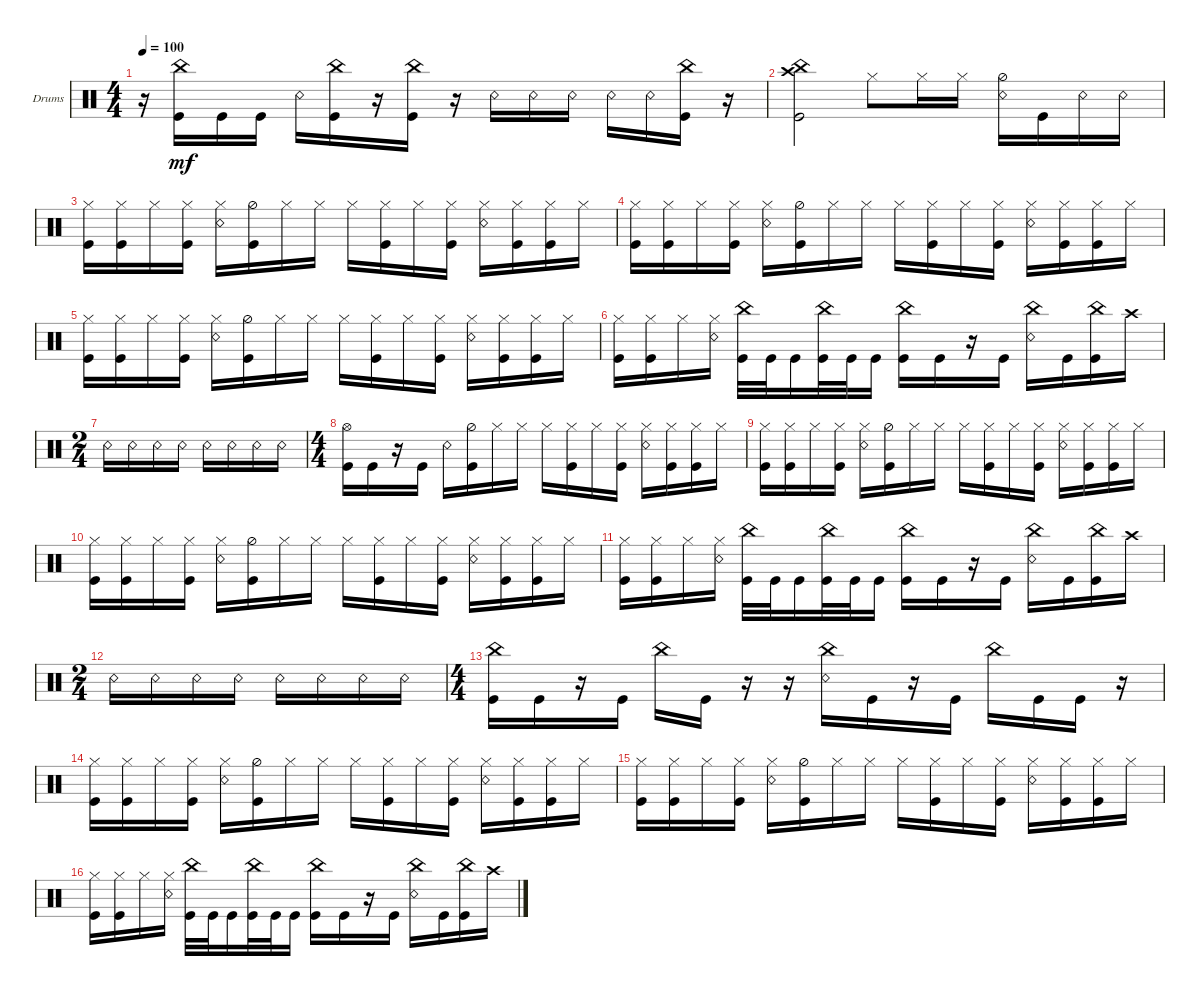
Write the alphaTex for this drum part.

\defaultSystemsLayout 4
\bracketExtendMode groupsimilarinstruments
\firstSystemTrackNameOrientation horizontal
\otherSystemsTrackNameOrientation horizontal
\track ("Drumkit" "Drums") {instrument percussion}
\staff {score}
\articulation defaults
\ts (4 4)
\tempo 100
\clef neutral
\ks c
r.16{dy mf} ("China (hit)" "Kick (hit)").16 "Kick (hit)".16 "Kick (hit)".16 "Snare (rim shot)".16 ("Kick (hit)" "China (hit)").16 r.16 ("China (hit)" "Kick (hit)").16 r.16 "Snare (rim shot)".16 "Snare (rim shot)".16 "Snare (rim shot)".16 "Snare (rim shot)".16 "Snare (rim shot)".16 ("China (hit)" "Kick (hit)").16 r.16 |
("Kick (hit)" "China (hit)" "Crash high (hit)").2 "Hi-Hat (closed)".8 "Hi-Hat (closed)".16 "Hi-Hat (closed)".16 ("Hi-Hat (half)" "Snare (rim shot)").16 "Kick (hit)".16 "Snare (rim shot)".16 "Snare (rim shot)".16 |
("Kick (hit)" "Hi-Hat (closed)").16 ("Kick (hit)" "Hi-Hat (closed)").16 "Hi-Hat (closed)".16 ("Hi-Hat (closed)" "Kick (hit)").16 ("Hi-Hat (closed)" "Snare (rim shot)").16 ("Hi-Hat (half)" "Kick (hit)").16 "Hi-Hat (closed)".16 "Hi-Hat (closed)".16 "Hi-Hat (closed)".16 ("Hi-Hat (closed)" "Kick (hit)").16 "Hi-Hat (closed)".16 ("Hi-Hat (closed)" "Kick (hit)").16 ("Hi-Hat (closed)" "Snare (rim shot)").16 ("Hi-Hat (closed)" "Kick (hit)").16 ("Hi-Hat (closed)" "Kick (hit)").16 "Hi-Hat (closed)".16 |
("Kick (hit)" "Hi-Hat (closed)").16 ("Kick (hit)" "Hi-Hat (closed)").16 "Hi-Hat (closed)".16 ("Hi-Hat (closed)" "Kick (hit)").16 ("Hi-Hat (closed)" "Snare (rim shot)").16 ("Hi-Hat (half)" "Kick (hit)").16 "Hi-Hat (closed)".16 "Hi-Hat (closed)".16 "Hi-Hat (closed)".16 ("Hi-Hat (closed)" "Kick (hit)").16 "Hi-Hat (closed)".16 ("Hi-Hat (closed)" "Kick (hit)").16 ("Hi-Hat (closed)" "Snare (rim shot)").16 ("Hi-Hat (closed)" "Kick (hit)").16 ("Hi-Hat (closed)" "Kick (hit)").16 "Hi-Hat (closed)".16 |
("Kick (hit)" "Hi-Hat (closed)").16 ("Kick (hit)" "Hi-Hat (closed)").16 "Hi-Hat (closed)".16 ("Hi-Hat (closed)" "Kick (hit)").16 ("Hi-Hat (closed)" "Snare (rim shot)").16 ("Hi-Hat (half)" "Kick (hit)").16 "Hi-Hat (closed)".16 "Hi-Hat (closed)".16 "Hi-Hat (closed)".16 ("Hi-Hat (closed)" "Kick (hit)").16 "Hi-Hat (closed)".16 ("Hi-Hat (closed)" "Kick (hit)").16 ("Hi-Hat (closed)" "Snare (rim shot)").16 ("Hi-Hat (closed)" "Kick (hit)").16 ("Hi-Hat (closed)" "Kick (hit)").16 "Hi-Hat (closed)".16 |
("Kick (hit)" "Hi-Hat (closed)").16 ("Kick (hit)" "Hi-Hat (closed)").16 "Hi-Hat (closed)".16 ("Hi-Hat (closed)" "Snare (rim shot)").16 ("Kick (hit)" "China (hit)").32 "Kick (hit)".32 "Kick (hit)".16 ("Kick (hit)" "China (hit)").32 "Kick (hit)".32 "Kick (hit)".16 ("China (hit)" "Kick (hit)").16 "Kick (hit)".16 r.16 "Kick (hit)".16 ("Snare (rim shot)" "China (hit)").16 "Kick (hit)".16 ("China (hit)" "Kick (hit)").16 "Crash high (hit)".16 |
\ts (2 4)
"Snare (rim shot)".16 "Snare (rim shot)".16 "Snare (rim shot)".16 "Snare (rim shot)".16 "Snare (rim shot)".16 "Snare (rim shot)".16 "Snare (rim shot)".16 "Snare (rim shot)".16 |
\ts (4 4)
("Kick (hit)" "Hi-Hat (open)").16 "Kick (hit)".16 r.16 "Kick (hit)".16 "Snare (rim shot)".16 ("Hi-Hat (half)" "Kick (hit)").16 "Hi-Hat (closed)".16 "Hi-Hat (closed)".16 "Hi-Hat (closed)".16 ("Hi-Hat (closed)" "Kick (hit)").16 "Hi-Hat (closed)".16 ("Hi-Hat (closed)" "Kick (hit)").16 ("Hi-Hat (closed)" "Snare (rim shot)").16 ("Hi-Hat (closed)" "Kick (hit)").16 ("Hi-Hat (closed)" "Kick (hit)").16 "Hi-Hat (closed)".16 |
("Kick (hit)" "Hi-Hat (closed)").16 ("Kick (hit)" "Hi-Hat (closed)").16 "Hi-Hat (closed)".16 ("Hi-Hat (closed)" "Kick (hit)").16 ("Hi-Hat (closed)" "Snare (rim shot)").16 ("Hi-Hat (half)" "Kick (hit)").16 "Hi-Hat (closed)".16 "Hi-Hat (closed)".16 "Hi-Hat (closed)".16 ("Hi-Hat (closed)" "Kick (hit)").16 "Hi-Hat (closed)".16 ("Hi-Hat (closed)" "Kick (hit)").16 ("Hi-Hat (closed)" "Snare (rim shot)").16 ("Hi-Hat (closed)" "Kick (hit)").16 ("Hi-Hat (closed)" "Kick (hit)").16 "Hi-Hat (closed)".16 |
("Kick (hit)" "Hi-Hat (closed)").16 ("Kick (hit)" "Hi-Hat (closed)").16 "Hi-Hat (closed)".16 ("Hi-Hat (closed)" "Kick (hit)").16 ("Hi-Hat (closed)" "Snare (rim shot)").16 ("Hi-Hat (half)" "Kick (hit)").16 "Hi-Hat (closed)".16 "Hi-Hat (closed)".16 "Hi-Hat (closed)".16 ("Hi-Hat (closed)" "Kick (hit)").16 "Hi-Hat (closed)".16 ("Hi-Hat (closed)" "Kick (hit)").16 ("Hi-Hat (closed)" "Snare (rim shot)").16 ("Hi-Hat (closed)" "Kick (hit)").16 ("Hi-Hat (closed)" "Kick (hit)").16 "Hi-Hat (closed)".16 |
("Kick (hit)" "Hi-Hat (closed)").16 ("Kick (hit)" "Hi-Hat (closed)").16 "Hi-Hat (closed)".16 ("Hi-Hat (closed)" "Snare (rim shot)").16 ("Kick (hit)" "China (hit)").32 "Kick (hit)".32 "Kick (hit)".16 ("Kick (hit)" "China (hit)").32 "Kick (hit)".32 "Kick (hit)".16 ("China (hit)" "Kick (hit)").16 "Kick (hit)".16 r.16 "Kick (hit)".16 ("Snare (rim shot)" "China (hit)").16 "Kick (hit)".16 ("China (hit)" "Kick (hit)").16 "Crash high (hit)".16 |
\ts (2 4)
"Snare (rim shot)".16 "Snare (rim shot)".16 "Snare (rim shot)".16 "Snare (rim shot)".16 "Snare (rim shot)".16 "Snare (rim shot)".16 "Snare (rim shot)".16 "Snare (rim shot)".16 |
\ts (4 4)
("Kick (hit)" "China (hit)").16 "Kick (hit)".16 r.16 "Kick (hit)".16 "China (hit)".16 "Kick (hit)".16 r.16 r.16 ("Snare (rim shot)" "China (hit)").16 "Kick (hit)".16 r.16 "Kick (hit)".16 "China (hit)".16 "Kick (hit)".16 "Kick (hit)".16 r.16 |
("Kick (hit)" "Hi-Hat (closed)").16 ("Kick (hit)" "Hi-Hat (closed)").16 "Hi-Hat (closed)".16 ("Hi-Hat (closed)" "Kick (hit)").16 ("Hi-Hat (closed)" "Snare (rim shot)").16 ("Hi-Hat (half)" "Kick (hit)").16 "Hi-Hat (closed)".16 "Hi-Hat (closed)".16 "Hi-Hat (closed)".16 ("Hi-Hat (closed)" "Kick (hit)").16 "Hi-Hat (closed)".16 ("Hi-Hat (closed)" "Kick (hit)").16 ("Hi-Hat (closed)" "Snare (rim shot)").16 ("Hi-Hat (closed)" "Kick (hit)").16 ("Hi-Hat (closed)" "Kick (hit)").16 "Hi-Hat (closed)".16 |
("Kick (hit)" "Hi-Hat (closed)").16 ("Kick (hit)" "Hi-Hat (closed)").16 "Hi-Hat (closed)".16 ("Hi-Hat (closed)" "Kick (hit)").16 ("Hi-Hat (closed)" "Snare (rim shot)").16 ("Hi-Hat (half)" "Kick (hit)").16 "Hi-Hat (closed)".16 "Hi-Hat (closed)".16 "Hi-Hat (closed)".16 ("Hi-Hat (closed)" "Kick (hit)").16 "Hi-Hat (closed)".16 ("Hi-Hat (closed)" "Kick (hit)").16 ("Hi-Hat (closed)" "Snare (rim shot)").16 ("Hi-Hat (closed)" "Kick (hit)").16 ("Hi-Hat (closed)" "Kick (hit)").16 "Hi-Hat (closed)".16 |
("Kick (hit)" "Hi-Hat (closed)").16 ("Kick (hit)" "Hi-Hat (closed)").16 "Hi-Hat (closed)".16 ("Hi-Hat (closed)" "Snare (rim shot)").16 ("Kick (hit)" "China (hit)").32 "Kick (hit)".32 "Kick (hit)".16 ("Kick (hit)" "China (hit)").32 "Kick (hit)".32 "Kick (hit)".16 ("China (hit)" "Kick (hit)").16 "Kick (hit)".16 r.16 "Kick (hit)".16 ("Snare (rim shot)" "China (hit)").16 "Kick (hit)".16 ("China (hit)" "Kick (hit)").16 "Crash high (hit)".16
